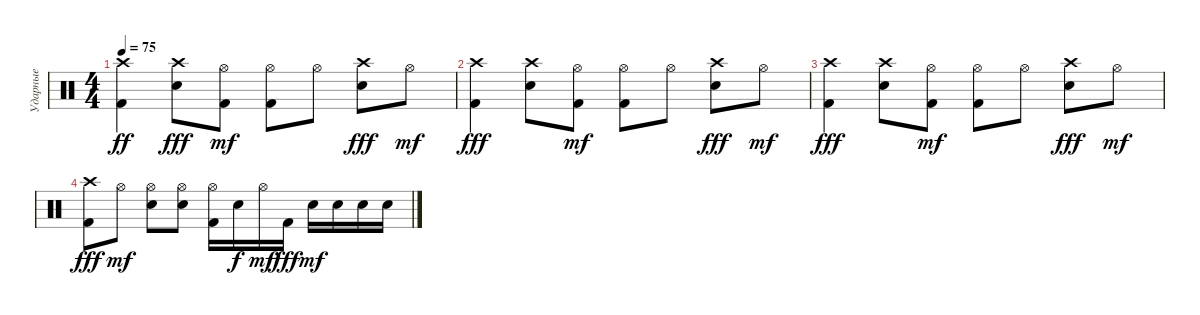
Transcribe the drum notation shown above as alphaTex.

\track ("Ударные" "Ударные") {instrument percussion}
\staff {score}
\articulation defaults
\ts (4 4)
\tempo 75
\clef neutral
\ks c
("Kick (hit) 2" "Crash high (hit)").4{dy ff} ("Snare (hit) 2" "Crash high (hit)").8{dy fff} ("Kick (hit) 2" "Hi-Hat (open)").8{dy mf} ("Kick (hit) 2" "Hi-Hat (open)").8 "Hi-Hat (open)".8 ("Snare (hit) 2" "Crash high (hit)").8{dy fff} "Hi-Hat (open)".8{dy mf} |
("Kick (hit) 2" "Crash high (hit)").4{dy fff} ("Snare (hit) 2" "Crash high (hit)").8 ("Kick (hit) 2" "Hi-Hat (open)").8{dy mf} ("Kick (hit) 2" "Hi-Hat (open)").8 "Hi-Hat (open)".8 ("Snare (hit) 2" "Crash high (hit)").8{dy fff} "Hi-Hat (open)".8{dy mf} |
("Kick (hit) 2" "Crash high (hit)").4{dy fff} ("Snare (hit) 2" "Crash high (hit)").8 ("Kick (hit) 2" "Hi-Hat (open)").8{dy mf} ("Kick (hit) 2" "Hi-Hat (open)").8 "Hi-Hat (open)".8 ("Snare (hit) 2" "Crash high (hit)").8{dy fff} "Hi-Hat (open)".8{dy mf} |
("Kick (hit) 2" "Crash high (hit)").8{dy fff} "Hi-Hat (open)".8{dy mf} ("Snare (hit) 2" "Hi-Hat (open)").8 ("Snare (hit) 2" "Hi-Hat (open)").8 ("Kick (hit) 2" "Hi-Hat (open)").16 "Snare (hit) 2".16{dy f} "Hi-Hat (open)".16{dy mf} "Kick (hit) 2".16{dy fff} "Snare (hit) 2".16{dy mf} "Snare (hit) 2".16 "Snare (hit) 2".16 "Snare (hit) 2".16
